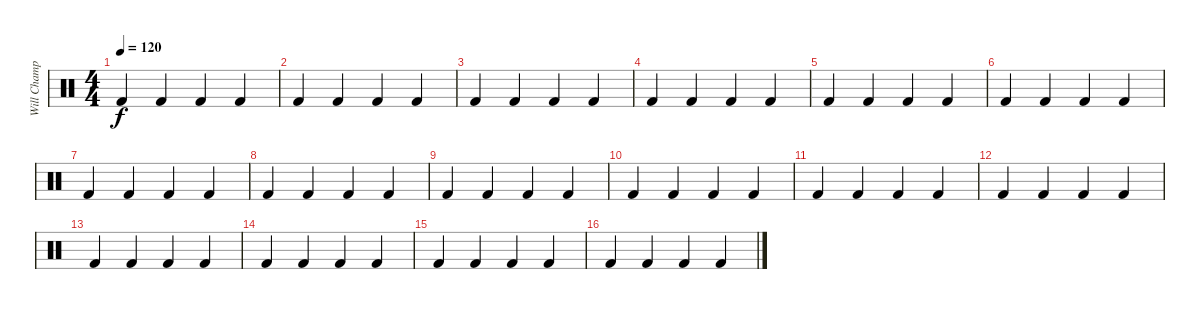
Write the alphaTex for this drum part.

\track ("Will Champion" "Will Champ") {instrument percussion}
\staff {score}
\articulation defaults
\ts (4 4)
\tempo 120
\clef neutral
\ks c "Kick (hit) 2".4{dy f} "Kick (hit) 2".4 "Kick (hit) 2".4 "Kick (hit) 2".4
|
"Kick (hit) 2".4 "Kick (hit) 2".4 "Kick (hit) 2".4 "Kick (hit) 2".4 |
"Kick (hit) 2".4 "Kick (hit) 2".4 "Kick (hit) 2".4 "Kick (hit) 2".4 |
"Kick (hit) 2".4 "Kick (hit) 2".4 "Kick (hit) 2".4 "Kick (hit) 2".4 |
"Kick (hit) 2".4 "Kick (hit) 2".4 "Kick (hit) 2".4 "Kick (hit) 2".4 |
"Kick (hit) 2".4 "Kick (hit) 2".4 "Kick (hit) 2".4 "Kick (hit) 2".4 |
"Kick (hit) 2".4 "Kick (hit) 2".4 "Kick (hit) 2".4 "Kick (hit) 2".4 |
"Kick (hit) 2".4 "Kick (hit) 2".4 "Kick (hit) 2".4 "Kick (hit) 2".4 |
"Kick (hit) 2".4 "Kick (hit) 2".4 "Kick (hit) 2".4 "Kick (hit) 2".4 |
"Kick (hit) 2".4 "Kick (hit) 2".4 "Kick (hit) 2".4 "Kick (hit) 2".4 |
"Kick (hit) 2".4 "Kick (hit) 2".4 "Kick (hit) 2".4 "Kick (hit) 2".4 |
"Kick (hit) 2".4 "Kick (hit) 2".4 "Kick (hit) 2".4 "Kick (hit) 2".4 |
"Kick (hit) 2".4 "Kick (hit) 2".4 "Kick (hit) 2".4 "Kick (hit) 2".4 |
"Kick (hit) 2".4 "Kick (hit) 2".4 "Kick (hit) 2".4 "Kick (hit) 2".4 |
"Kick (hit) 2".4 "Kick (hit) 2".4 "Kick (hit) 2".4 "Kick (hit) 2".4 |
"Kick (hit) 2".4 "Kick (hit) 2".4 "Kick (hit) 2".4 "Kick (hit) 2".4
